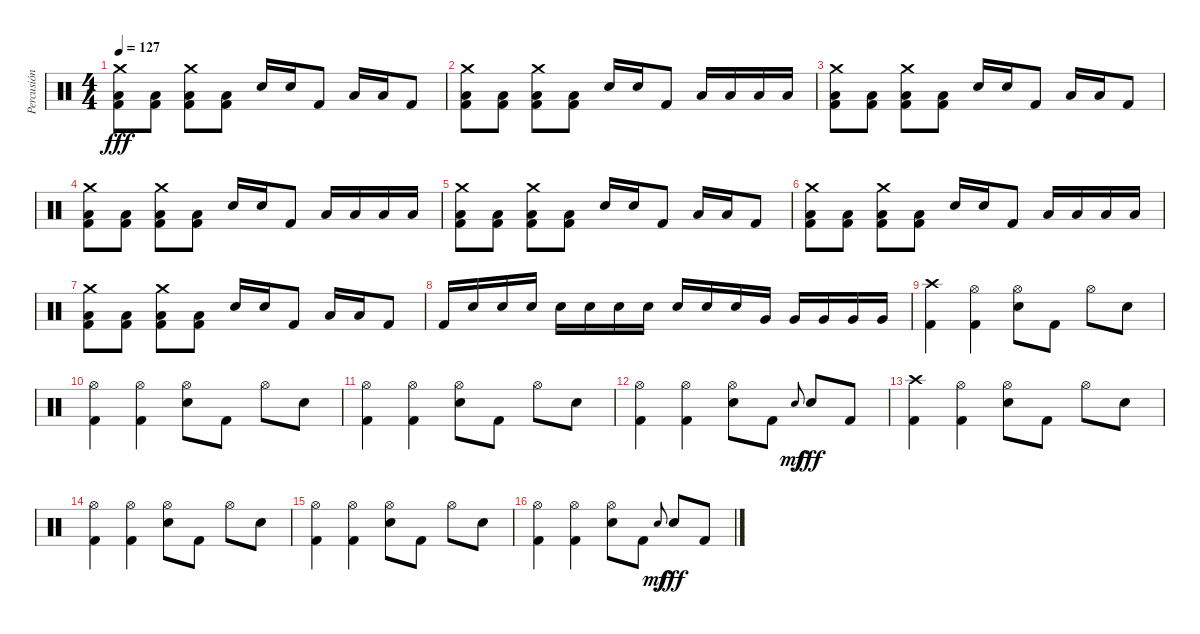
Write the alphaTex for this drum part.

\track ("Percusión" "Percusión") {instrument percussion}
\staff {score}
\articulation defaults
\ts (4 4)
\tempo 127
\clef neutral
\ks c
("Crash medium (hit)" "Low Tom (hit)" "Kick (hit) 2").8{dy fff} ("Low Tom (hit)" "Kick (hit) 2").8 ("Crash medium (hit)" "Low Tom (hit)" "Kick (hit) 2").8 ("Low Tom (hit)" "Kick (hit) 2").8 "Electric Snare (hit)".16 "Electric Snare (hit)".16 "Kick (hit) 2".8 "Low Tom (hit)".16 "Low Tom (hit)".16 "Kick (hit) 2".8 |
("Crash medium (hit)" "Low Tom (hit)" "Kick (hit) 2").8 ("Low Tom (hit)" "Kick (hit) 2").8 ("Crash medium (hit)" "Low Tom (hit)" "Kick (hit) 2").8 ("Low Tom (hit)" "Kick (hit) 2").8 "Electric Snare (hit)".16 "Electric Snare (hit)".16 "Kick (hit) 2".8 "Low Floor Tom (hit)".16 "Low Floor Tom (hit)".16 "Low Floor Tom (hit)".16 "Low Floor Tom (hit)".16 |
("Crash medium (hit)" "Low Tom (hit)" "Kick (hit) 2").8 ("Low Tom (hit)" "Kick (hit) 2").8 ("Crash medium (hit)" "Low Tom (hit)" "Kick (hit) 2").8 ("Low Tom (hit)" "Kick (hit) 2").8 "Electric Snare (hit)".16 "Electric Snare (hit)".16 "Kick (hit) 2".8 "Low Tom (hit)".16 "Low Tom (hit)".16 "Kick (hit) 2".8 |
("Crash medium (hit)" "Low Tom (hit)" "Kick (hit) 2").8 ("Low Tom (hit)" "Kick (hit) 2").8 ("Crash medium (hit)" "Low Tom (hit)" "Kick (hit) 2").8 ("Low Tom (hit)" "Kick (hit) 2").8 "Electric Snare (hit)".16 "Electric Snare (hit)".16 "Kick (hit) 2".8 "Low Floor Tom (hit)".16 "Low Floor Tom (hit)".16 "Low Floor Tom (hit)".16 "Low Floor Tom (hit)".16 |
("Crash medium (hit)" "Low Tom (hit)" "Kick (hit) 2").8 ("Low Tom (hit)" "Kick (hit) 2").8 ("Crash medium (hit)" "Low Tom (hit)" "Kick (hit) 2").8 ("Low Tom (hit)" "Kick (hit) 2").8 "Electric Snare (hit)".16 "Electric Snare (hit)".16 "Kick (hit) 2".8 "Low Tom (hit)".16 "Low Tom (hit)".16 "Kick (hit) 2".8 |
("Crash medium (hit)" "Low Tom (hit)" "Kick (hit) 2").8 ("Low Tom (hit)" "Kick (hit) 2").8 ("Crash medium (hit)" "Low Tom (hit)" "Kick (hit) 2").8 ("Low Tom (hit)" "Kick (hit) 2").8 "Electric Snare (hit)".16 "Electric Snare (hit)".16 "Kick (hit) 2".8 "Low Floor Tom (hit)".16 "Low Floor Tom (hit)".16 "Low Floor Tom (hit)".16 "Low Floor Tom (hit)".16 |
("Crash medium (hit)" "Low Tom (hit)" "Kick (hit) 2").8 ("Low Tom (hit)" "Kick (hit) 2").8 ("Crash medium (hit)" "Low Tom (hit)" "Kick (hit) 2").8 ("Low Tom (hit)" "Kick (hit) 2").8 "Electric Snare (hit)".16 "Electric Snare (hit)".16 "Kick (hit) 2".8 "Low Tom (hit)".16 "Low Tom (hit)".16 "Kick (hit) 2".8 |
"Kick (hit) 2".16 "Electric Snare (hit)".16 "Electric Snare (hit)".16 "Electric Snare (hit)".16 "Electric Snare (hit)".16 "Electric Snare (hit)".16 "Electric Snare (hit)".16 "Electric Snare (hit)".16 "Electric Snare (hit)".16 "Electric Snare (hit)".16 "Electric Snare (hit)".16 "Very Low Tom (hit)".16 "Very Low Tom (hit)".16 "Very Low Tom (hit)".16 "Very Low Tom (hit)".16 "Very Low Tom (hit)".16 |
("Crash high (hit)" "Kick (hit) 2").4 ("Hi-Hat (open)" "Kick (hit) 2").4 ("Hi-Hat (open)" "Electric Snare (hit)").8 "Kick (hit) 2".8 "Hi-Hat (open)".8 "Electric Snare (hit)".8 |
("Hi-Hat (open)" "Kick (hit) 2").4 ("Hi-Hat (open)" "Kick (hit) 2").4 ("Hi-Hat (open)" "Electric Snare (hit)").8 "Kick (hit) 2".8 "Hi-Hat (open)".8 "Electric Snare (hit)".8 |
("Hi-Hat (open)" "Kick (hit) 2").4 ("Hi-Hat (open)" "Kick (hit) 2").4 ("Hi-Hat (open)" "Electric Snare (hit)").8 "Kick (hit) 2".8 "Hi-Hat (open)".8 "Electric Snare (hit)".8 |
("Hi-Hat (open)" "Kick (hit) 2").4 ("Hi-Hat (open)" "Kick (hit) 2").4 ("Hi-Hat (open)" "Electric Snare (hit)").8 "Kick (hit) 2".8 "Electric Snare (hit)".8{gr onbeat dy mf} "Electric Snare (hit)".8{dy fff} "Kick (hit) 2".8 |
("Crash high (hit)" "Kick (hit) 2").4 ("Hi-Hat (open)" "Kick (hit) 2").4 ("Hi-Hat (open)" "Electric Snare (hit)").8 "Kick (hit) 2".8 "Hi-Hat (open)".8 "Electric Snare (hit)".8 |
("Hi-Hat (open)" "Kick (hit) 2").4 ("Hi-Hat (open)" "Kick (hit) 2").4 ("Hi-Hat (open)" "Electric Snare (hit)").8 "Kick (hit) 2".8 "Hi-Hat (open)".8 "Electric Snare (hit)".8 |
("Hi-Hat (open)" "Kick (hit) 2").4 ("Hi-Hat (open)" "Kick (hit) 2").4 ("Hi-Hat (open)" "Electric Snare (hit)").8 "Kick (hit) 2".8 "Hi-Hat (open)".8 "Electric Snare (hit)".8 |
("Hi-Hat (open)" "Kick (hit) 2").4 ("Hi-Hat (open)" "Kick (hit) 2").4 ("Hi-Hat (open)" "Electric Snare (hit)").8 "Kick (hit) 2".8 "Electric Snare (hit)".8{gr onbeat dy mf} "Electric Snare (hit)".8{dy fff} "Kick (hit) 2".8
